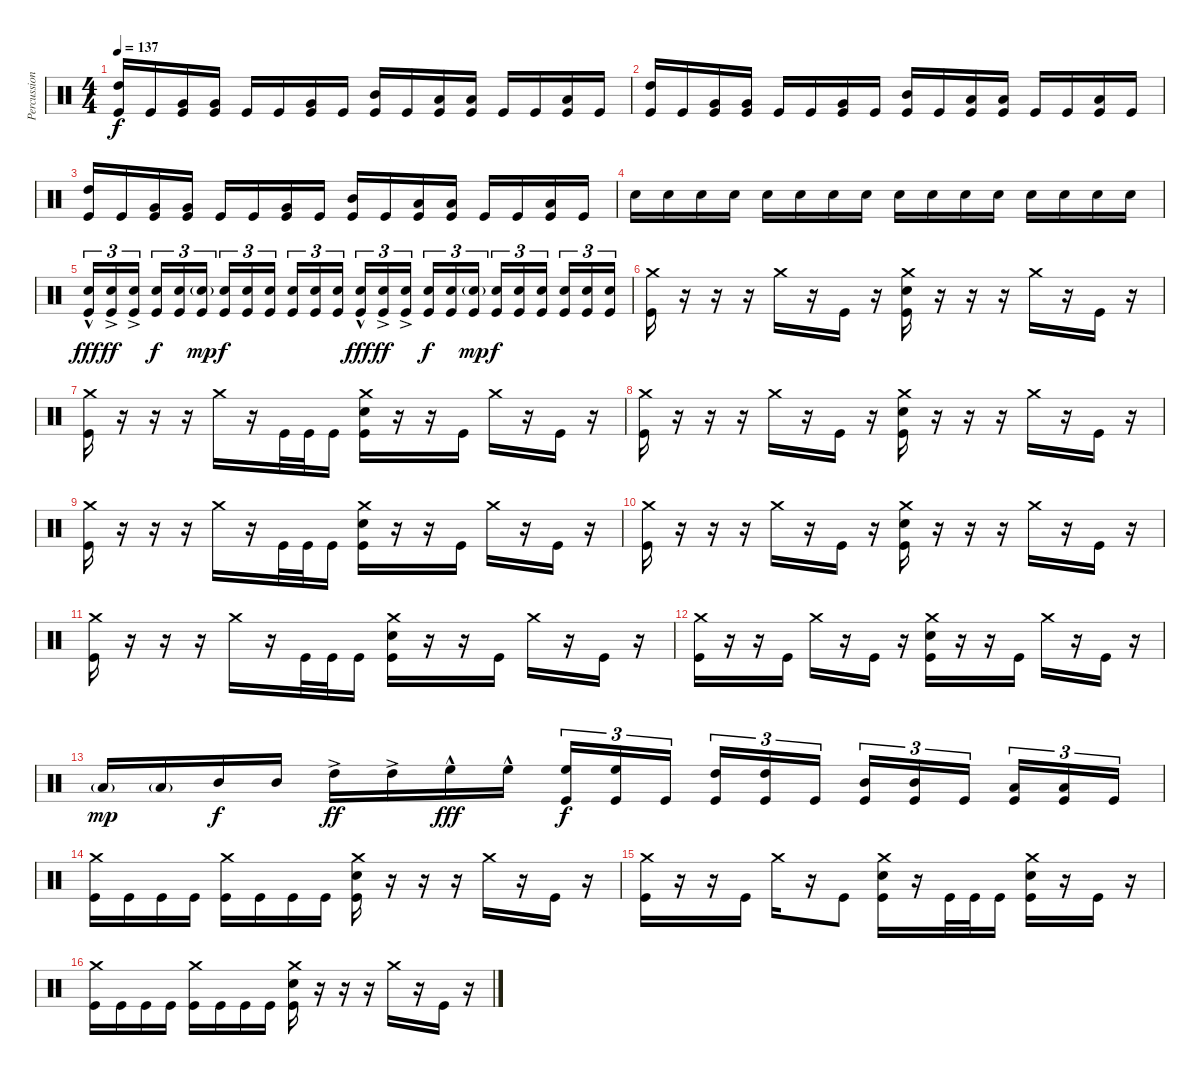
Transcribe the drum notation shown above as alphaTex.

\track ("Percussion" "Percussion") {instrument percussion}
\staff {score}
\articulation defaults
\ts (4 4)
\tempo 137
\clef neutral
\ks c
("High Tom (hit)" "Kick (hit)").16{dy f} "Kick (hit)".16 ("Very Low Tom (hit)" "Kick (hit)").16 ("Very Low Tom (hit)" "Kick (hit)").16 "Kick (hit)".16 "Kick (hit)".16 ("Very Low Tom (hit)" "Kick (hit)").16 "Kick (hit)".16 ("Mid Tom (hit)" "Kick (hit)").16 "Kick (hit)".16 ("Low Floor Tom (hit)" "Kick (hit)").16 ("Low Floor Tom (hit)" "Kick (hit)").16 "Kick (hit)".16 "Kick (hit)".16 ("Low Floor Tom (hit)" "Kick (hit)").16 "Kick (hit)".16 |
("High Tom (hit)" "Kick (hit)").16 "Kick (hit)".16 ("Very Low Tom (hit)" "Kick (hit)").16 ("Very Low Tom (hit)" "Kick (hit)").16 "Kick (hit)".16 "Kick (hit)".16 ("Very Low Tom (hit)" "Kick (hit)").16 "Kick (hit)".16 ("Mid Tom (hit)" "Kick (hit)").16 "Kick (hit)".16 ("Low Floor Tom (hit)" "Kick (hit)").16 ("Low Floor Tom (hit)" "Kick (hit)").16 "Kick (hit)".16 "Kick (hit)".16 ("Low Floor Tom (hit)" "Kick (hit)").16 "Kick (hit)".16 |
("High Tom (hit)" "Kick (hit)").16 "Kick (hit)".16 ("Very Low Tom (hit)" "Kick (hit)").16 ("Very Low Tom (hit)" "Kick (hit)").16 "Kick (hit)".16 "Kick (hit)".16 ("Very Low Tom (hit)" "Kick (hit)").16 "Kick (hit)".16 ("Mid Tom (hit)" "Kick (hit)").16 "Kick (hit)".16 ("Low Floor Tom (hit)" "Kick (hit)").16 ("Low Floor Tom (hit)" "Kick (hit)").16 "Kick (hit)".16 "Kick (hit)".16 ("Low Floor Tom (hit)" "Kick (hit)").16 "Kick (hit)".16 |
"Snare (hit) 2".16{volume 10} "Snare (hit) 2".16{volume 16} "Snare (hit) 2".16 "Snare (hit) 2".16 "Snare (hit) 2".16 "Snare (hit) 2".16 "Snare (hit) 2".16 "Snare (hit) 2".16 "Snare (hit) 2".16 "Snare (hit) 2".16 "Snare (hit) 2".16 "Snare (hit) 2".16 "Snare (hit) 2".16 "Snare (hit) 2".16 "Snare (hit) 2".16 "Snare (hit) 2".16 |
("Snare (hit) 2"{hac} "Kick (hit)").16{tu (3 2) dy fff} ("Snare (hit) 2"{ac} "Kick (hit)").16{tu (3 2) dy ff} ("Snare (hit) 2"{ac} "Kick (hit)").16{tu (3 2) beam splitsecondary} ("Snare (hit) 2" "Kick (hit)").16{tu (3 2) dy f} ("Snare (hit) 2" "Kick (hit)").16{tu (3 2)} ("Snare (hit) 2"{g} "Kick (hit)").16{tu (3 2) dy mp} ("Snare (hit) 2" "Kick (hit)").16{tu (3 2) dy f} ("Snare (hit) 2" "Kick (hit)").16{tu (3 2)} ("Snare (hit) 2" "Kick (hit)").16{tu (3 2) beam splitsecondary} ("Snare (hit) 2" "Kick (hit)").16{tu (3 2)} ("Snare (hit) 2" "Kick (hit)").16{tu (3 2)} ("Snare (hit) 2" "Kick (hit)").16{tu (3 2)} ("Snare (hit) 2"{hac} "Kick (hit)").16{tu (3 2) dy fff} ("Snare (hit) 2"{ac} "Kick (hit)").16{tu (3 2) dy ff} ("Snare (hit) 2"{ac} "Kick (hit)").16{tu (3 2) beam splitsecondary} ("Snare (hit) 2" "Kick (hit)").16{tu (3 2) dy f} ("Snare (hit) 2" "Kick (hit)").16{tu (3 2)} ("Snare (hit) 2"{g} "Kick (hit)").16{tu (3 2) dy mp} ("Snare (hit) 2" "Kick (hit)").16{tu (3 2) dy f} ("Snare (hit) 2" "Kick (hit)").16{tu (3 2)} ("Snare (hit) 2" "Kick (hit)").16{tu (3 2) beam splitsecondary} ("Snare (hit) 2" "Kick (hit)").16{tu (3 2)} ("Snare (hit) 2" "Kick (hit)").16{tu (3 2)} ("Snare (hit) 2" "Kick (hit)").16{tu (3 2)} |
("Crash medium (hit)" "Kick (hit)").16 r.16 r.16 r.16 "Crash medium (hit)".16 r.16 "Kick (hit)".16 r.16 ("Crash medium (hit)" "Snare (hit) 2" "Kick (hit)").16 r.16 r.16 r.16 "Crash medium (hit)".16 r.16 "Kick (hit)".16 r.16 |
("Crash medium (hit)" "Kick (hit)").16 r.16 r.16 r.16 "Crash medium (hit)".16 r.16 "Kick (hit)".32 "Kick (hit)".32 "Kick (hit)".16 ("Crash medium (hit)" "Snare (hit) 2" "Kick (hit)").16 r.16 r.16 "Kick (hit)".16 "Crash medium (hit)".16 r.16 "Kick (hit)".16 r.16 |
("Crash medium (hit)" "Kick (hit)").16 r.16 r.16 r.16 "Crash medium (hit)".16 r.16 "Kick (hit)".16 r.16 ("Crash medium (hit)" "Snare (hit) 2" "Kick (hit)").16 r.16 r.16 r.16 "Crash medium (hit)".16 r.16 "Kick (hit)".16 r.16 |
("Crash medium (hit)" "Kick (hit)").16 r.16 r.16 r.16 "Crash medium (hit)".16 r.16 "Kick (hit)".32 "Kick (hit)".32 "Kick (hit)".16 ("Crash medium (hit)" "Snare (hit) 2" "Kick (hit)").16 r.16 r.16 "Kick (hit)".16 "Crash medium (hit)".16 r.16 "Kick (hit)".16 r.16 |
("Crash medium (hit)" "Kick (hit)").16 r.16 r.16 r.16 "Crash medium (hit)".16 r.16 "Kick (hit)".16 r.16 ("Crash medium (hit)" "Snare (hit) 2" "Kick (hit)").16 r.16 r.16 r.16 "Crash medium (hit)".16 r.16 "Kick (hit)".16 r.16 |
("Crash medium (hit)" "Kick (hit)").16 r.16 r.16 r.16 "Crash medium (hit)".16 r.16 "Kick (hit)".32 "Kick (hit)".32 "Kick (hit)".16 ("Crash medium (hit)" "Snare (hit) 2" "Kick (hit)").16 r.16 r.16 "Kick (hit)".16 "Crash medium (hit)".16 r.16 "Kick (hit)".16 r.16 |
("Crash medium (hit)" "Kick (hit)").16 r.16 r.16 "Kick (hit)".16 "Crash medium (hit)".16 r.16 "Kick (hit)".16 r.16 ("Crash medium (hit)" "Snare (hit) 2" "Kick (hit)").16 r.16 r.16 "Kick (hit)".16 "Crash medium (hit)".16 r.16 "Kick (hit)".16 r.16 |
"Low Tom (hit)"{g}.16{dy mp} "Low Tom (hit)"{g}.16 "Mid Tom (hit)".16{dy f} "Mid Tom (hit)".16 "High Tom (hit)"{ac}.16{dy ff} "High Tom (hit)"{ac}.16 "High Floor Tom (hit)"{hac}.16{dy fff} "High Floor Tom (hit)"{hac}.16 ("High Floor Tom (hit)" "Kick (hit)").16{tu (3 2) dy f} ("High Floor Tom (hit)" "Kick (hit)").16{tu (3 2)} "Kick (hit)".16{tu (3 2) beam splitsecondary} ("High Tom (hit)" "Kick (hit)").16{tu (3 2)} ("High Tom (hit)" "Kick (hit)").16{tu (3 2)} "Kick (hit)".16{tu (3 2)} ("Mid Tom (hit)" "Kick (hit)").16{tu (3 2)} ("Mid Tom (hit)" "Kick (hit)").16{tu (3 2)} "Kick (hit)".16{tu (3 2) beam splitsecondary} ("Low Tom (hit)" "Kick (hit)").16{tu (3 2)} ("Low Tom (hit)" "Kick (hit)").16{tu (3 2)} "Kick (hit)".16{tu (3 2)} |
("Crash medium (hit)" "Kick (hit)").16 "Kick (hit)".16 "Kick (hit)".16 "Kick (hit)".16 ("Crash medium (hit)" "Kick (hit)").16 "Kick (hit)".16 "Kick (hit)".16 "Kick (hit)".16 ("Crash medium (hit)" "Snare (hit) 2" "Kick (hit)").16 r.16 r.16 r.16 "Crash medium (hit)".16 r.16 "Kick (hit)".16 r.16 |
("Crash medium (hit)" "Kick (hit)").16 r.16 r.16 "Kick (hit)".16 "Crash medium (hit)".16 r.16 "Kick (hit)".8 ("Crash medium (hit)" "Snare (hit) 2" "Kick (hit)").16 r.16 "Kick (hit)".32 "Kick (hit)".32 "Kick (hit)".16 ("Crash medium (hit)" "Snare (hit) 2" "Kick (hit)").16 r.16 "Kick (hit)".16 r.16 |
("Crash medium (hit)" "Kick (hit)").16 "Kick (hit)".16 "Kick (hit)".16 "Kick (hit)".16 ("Crash medium (hit)" "Kick (hit)").16 "Kick (hit)".16 "Kick (hit)".16 "Kick (hit)".16 ("Crash medium (hit)" "Snare (hit) 2" "Kick (hit)").16 r.16 r.16 r.16 "Crash medium (hit)".16 r.16 "Kick (hit)".16 r.16
